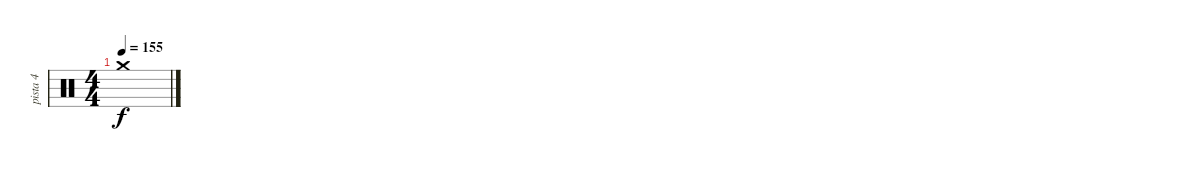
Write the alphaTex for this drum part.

\track ("pista 4" "pista 4") {instrument percussion}
\staff {score}
\articulation defaults
\ts (4 4)
\tempo 155
\clef neutral
\ks c "Crash medium (hit)".1{dy f}
